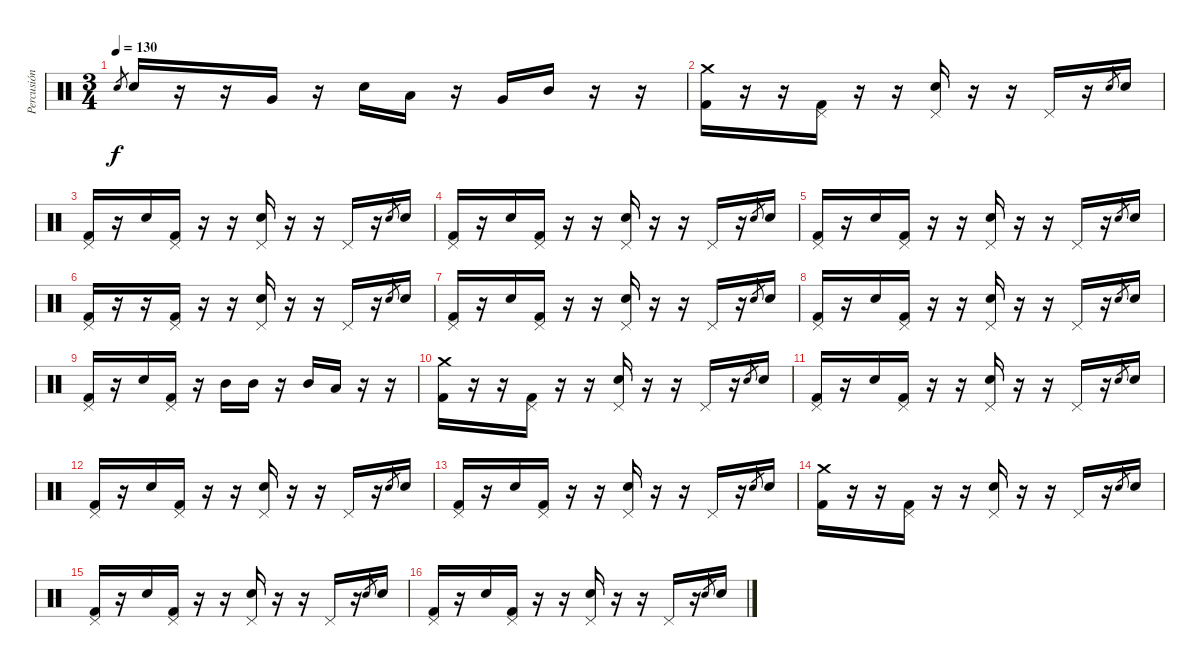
\track ("Percusión" "Percusión") {instrument percussion}
\staff {score}
\articulation defaults
\ts (3 4)
\tempo 130
\clef neutral
\ks c "Electric Snare (hit)".8{gr dy f} "Electric Snare (hit)".16
r.16 r.16 "Very Low Tom (hit)".16 r.16 "Electric Snare (hit)".16 "Low Tom (hit)".16 r.16 "Very Low Tom (hit)".16 "Mid Tom (hit)".16 r.16 r.16 |
("Crash medium (hit)" "Kick (hit) 2").16 r.16 r.16 ("Pedal Hi-Hat (hit)" "Kick (hit) 2").16 r.16 r.16 ("Pedal Hi-Hat (hit)" "Electric Snare (hit)").16 r.16 r.16 "Pedal Hi-Hat (hit)".16 r.16 "Electric Snare (hit)".8{gr} "Electric Snare (hit)".16 |
("Pedal Hi-Hat (hit)" "Kick (hit) 2").16 r.16 "Electric Snare (hit)".16 ("Pedal Hi-Hat (hit)" "Kick (hit) 2").16 r.16 r.16 ("Pedal Hi-Hat (hit)" "Electric Snare (hit)").16 r.16 r.16 "Pedal Hi-Hat (hit)".16 r.16 "Electric Snare (hit)".8{gr} "Electric Snare (hit)".16 |
("Pedal Hi-Hat (hit)" "Kick (hit) 2").16 r.16 "Electric Snare (hit)".16 ("Pedal Hi-Hat (hit)" "Kick (hit) 2").16 r.16 r.16 ("Pedal Hi-Hat (hit)" "Electric Snare (hit)").16 r.16 r.16 "Pedal Hi-Hat (hit)".16 r.16 "Electric Snare (hit)".8{gr} "Electric Snare (hit)".16 |
("Pedal Hi-Hat (hit)" "Kick (hit) 2").16 r.16 "Electric Snare (hit)".16 ("Pedal Hi-Hat (hit)" "Kick (hit) 2").16 r.16 r.16 ("Pedal Hi-Hat (hit)" "Electric Snare (hit)").16 r.16 r.16 "Pedal Hi-Hat (hit)".16 r.16 "Electric Snare (hit)".8{gr} "Electric Snare (hit)".16 |
("Pedal Hi-Hat (hit)" "Kick (hit) 2").16 r.16 r.16 ("Pedal Hi-Hat (hit)" "Kick (hit) 2").16 r.16 r.16 ("Pedal Hi-Hat (hit)" "Electric Snare (hit)").16 r.16 r.16 "Pedal Hi-Hat (hit)".16 r.16 "Electric Snare (hit)".8{gr} "Electric Snare (hit)".16 |
("Pedal Hi-Hat (hit)" "Kick (hit) 2").16 r.16 "Electric Snare (hit)".16 ("Pedal Hi-Hat (hit)" "Kick (hit) 2").16 r.16 r.16 ("Pedal Hi-Hat (hit)" "Electric Snare (hit)").16 r.16 r.16 "Pedal Hi-Hat (hit)".16 r.16 "Electric Snare (hit)".8{gr} "Electric Snare (hit)".16 |
("Pedal Hi-Hat (hit)" "Kick (hit) 2").16 r.16 "Electric Snare (hit)".16 ("Pedal Hi-Hat (hit)" "Kick (hit) 2").16 r.16 r.16 ("Pedal Hi-Hat (hit)" "Electric Snare (hit)").16 r.16 r.16 "Pedal Hi-Hat (hit)".16 r.16 "Electric Snare (hit)".8{gr} "Electric Snare (hit)".16 |
("Pedal Hi-Hat (hit)" "Kick (hit) 2").16 r.16 "Electric Snare (hit)".16 ("Pedal Hi-Hat (hit)" "Kick (hit) 2").16 r.16 "Mid Tom (hit)".16 "Mid Tom (hit)".16 r.16 "Mid Tom (hit)".16 "Low Tom (hit)".16 r.16 r.16 |
("Crash medium (hit)" "Kick (hit) 2").16 r.16 r.16 ("Pedal Hi-Hat (hit)" "Kick (hit) 2").16 r.16 r.16 ("Pedal Hi-Hat (hit)" "Electric Snare (hit)").16 r.16 r.16 "Pedal Hi-Hat (hit)".16 r.16 "Electric Snare (hit)".8{gr} "Electric Snare (hit)".16 |
("Pedal Hi-Hat (hit)" "Kick (hit) 2").16 r.16 "Electric Snare (hit)".16 ("Pedal Hi-Hat (hit)" "Kick (hit) 2").16 r.16 r.16 ("Pedal Hi-Hat (hit)" "Electric Snare (hit)").16 r.16 r.16 "Pedal Hi-Hat (hit)".16 r.16 "Electric Snare (hit)".8{gr} "Electric Snare (hit)".16 |
("Pedal Hi-Hat (hit)" "Kick (hit) 2").16 r.16 "Electric Snare (hit)".16 ("Pedal Hi-Hat (hit)" "Kick (hit) 2").16 r.16 r.16 ("Pedal Hi-Hat (hit)" "Electric Snare (hit)").16 r.16 r.16 "Pedal Hi-Hat (hit)".16 r.16 "Electric Snare (hit)".8{gr} "Electric Snare (hit)".16 |
("Pedal Hi-Hat (hit)" "Kick (hit) 2").16 r.16 "Electric Snare (hit)".16 ("Pedal Hi-Hat (hit)" "Kick (hit) 2").16 r.16 r.16 ("Pedal Hi-Hat (hit)" "Electric Snare (hit)").16 r.16 r.16 "Pedal Hi-Hat (hit)".16 r.16 "Electric Snare (hit)".8{gr} "Electric Snare (hit)".16 |
("Crash medium (hit)" "Kick (hit) 2").16 r.16 r.16 ("Pedal Hi-Hat (hit)" "Kick (hit) 2").16 r.16 r.16 ("Pedal Hi-Hat (hit)" "Electric Snare (hit)").16 r.16 r.16 "Pedal Hi-Hat (hit)".16 r.16 "Electric Snare (hit)".8{gr} "Electric Snare (hit)".16 |
("Pedal Hi-Hat (hit)" "Kick (hit) 2").16 r.16 "Electric Snare (hit)".16 ("Pedal Hi-Hat (hit)" "Kick (hit) 2").16 r.16 r.16 ("Pedal Hi-Hat (hit)" "Electric Snare (hit)").16 r.16 r.16 "Pedal Hi-Hat (hit)".16 r.16 "Electric Snare (hit)".8{gr} "Electric Snare (hit)".16 |
("Pedal Hi-Hat (hit)" "Kick (hit) 2").16 r.16 "Electric Snare (hit)".16 ("Pedal Hi-Hat (hit)" "Kick (hit) 2").16 r.16 r.16 ("Pedal Hi-Hat (hit)" "Electric Snare (hit)").16 r.16 r.16 "Pedal Hi-Hat (hit)".16 r.16 "Electric Snare (hit)".8{gr} "Electric Snare (hit)".16
